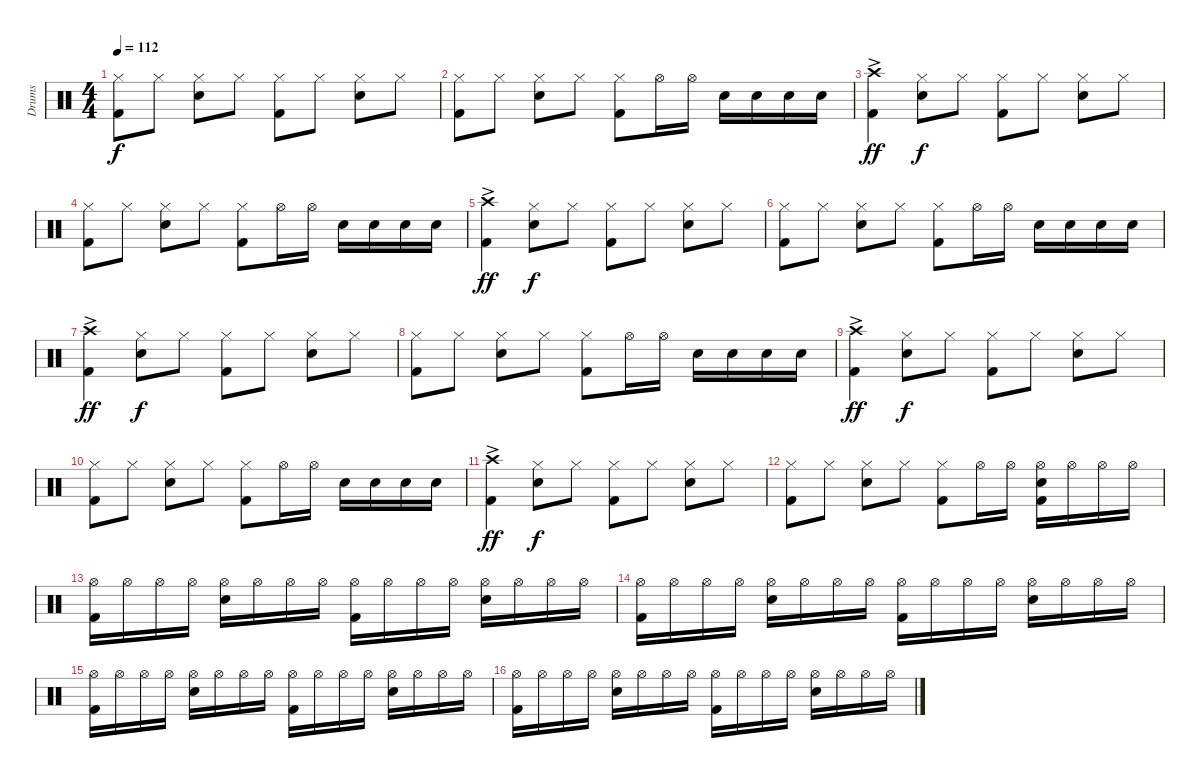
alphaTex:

\track ("Drums" "Drums") {instrument percussion}
\staff {score}
\articulation defaults
\ts (4 4)
\tempo 112
\clef neutral
\ks c
("Kick (hit) 2" "Hi-Hat (closed)").8{dy f} "Hi-Hat (closed)".8 ("Snare (hit) 2" "Hi-Hat (closed)").8 "Hi-Hat (closed)".8 ("Kick (hit) 2" "Hi-Hat (closed)").8 "Hi-Hat (closed)".8 ("Snare (hit) 2" "Hi-Hat (closed)").8 "Hi-Hat (closed)".8 |
("Kick (hit) 2" "Hi-Hat (closed)").8 "Hi-Hat (closed)".8 ("Snare (hit) 2" "Hi-Hat (closed)").8 "Hi-Hat (closed)".8 ("Kick (hit) 2" "Hi-Hat (closed)").8 "Hi-Hat (open)".16 "Hi-Hat (open)".16 "Snare (hit) 2".16 "Snare (hit) 2".16 "Snare (hit) 2".16 "Snare (hit) 2".16 |
("Kick (hit) 2" "Crash high (hit)"{ac}).4{dy ff} ("Snare (hit) 2" "Hi-Hat (closed)").8{dy f} "Hi-Hat (closed)".8 ("Kick (hit) 2" "Hi-Hat (closed)").8 "Hi-Hat (closed)".8 ("Snare (hit) 2" "Hi-Hat (closed)").8 "Hi-Hat (closed)".8 |
("Kick (hit) 2" "Hi-Hat (closed)").8 "Hi-Hat (closed)".8 ("Snare (hit) 2" "Hi-Hat (closed)").8 "Hi-Hat (closed)".8 ("Kick (hit) 2" "Hi-Hat (closed)").8 "Hi-Hat (open)".16 "Hi-Hat (open)".16 "Snare (hit) 2".16 "Snare (hit) 2".16 "Snare (hit) 2".16 "Snare (hit) 2".16 |
("Kick (hit) 2" "Crash high (hit)"{ac}).4{dy ff} ("Snare (hit) 2" "Hi-Hat (closed)").8{dy f} "Hi-Hat (closed)".8 ("Kick (hit) 2" "Hi-Hat (closed)").8 "Hi-Hat (closed)".8 ("Snare (hit) 2" "Hi-Hat (closed)").8 "Hi-Hat (closed)".8 |
("Kick (hit) 2" "Hi-Hat (closed)").8 "Hi-Hat (closed)".8 ("Snare (hit) 2" "Hi-Hat (closed)").8 "Hi-Hat (closed)".8 ("Kick (hit) 2" "Hi-Hat (closed)").8 "Hi-Hat (open)".16 "Hi-Hat (open)".16 "Snare (hit) 2".16 "Snare (hit) 2".16 "Snare (hit) 2".16 "Snare (hit) 2".16 |
("Kick (hit) 2" "Crash high (hit)"{ac}).4{dy ff} ("Snare (hit) 2" "Hi-Hat (closed)").8{dy f} "Hi-Hat (closed)".8 ("Kick (hit) 2" "Hi-Hat (closed)").8 "Hi-Hat (closed)".8 ("Snare (hit) 2" "Hi-Hat (closed)").8 "Hi-Hat (closed)".8 |
("Kick (hit) 2" "Hi-Hat (closed)").8 "Hi-Hat (closed)".8 ("Snare (hit) 2" "Hi-Hat (closed)").8 "Hi-Hat (closed)".8 ("Kick (hit) 2" "Hi-Hat (closed)").8 "Hi-Hat (open)".16 "Hi-Hat (open)".16 "Snare (hit) 2".16 "Snare (hit) 2".16 "Snare (hit) 2".16 "Snare (hit) 2".16 |
("Kick (hit) 2" "Crash high (hit)"{ac}).4{dy ff} ("Snare (hit) 2" "Hi-Hat (closed)").8{dy f} "Hi-Hat (closed)".8 ("Kick (hit) 2" "Hi-Hat (closed)").8 "Hi-Hat (closed)".8 ("Snare (hit) 2" "Hi-Hat (closed)").8 "Hi-Hat (closed)".8 |
("Kick (hit) 2" "Hi-Hat (closed)").8 "Hi-Hat (closed)".8 ("Snare (hit) 2" "Hi-Hat (closed)").8 "Hi-Hat (closed)".8 ("Kick (hit) 2" "Hi-Hat (closed)").8 "Hi-Hat (open)".16 "Hi-Hat (open)".16 "Snare (hit) 2".16 "Snare (hit) 2".16 "Snare (hit) 2".16 "Snare (hit) 2".16 |
("Kick (hit) 2" "Crash high (hit)"{ac}).4{dy ff} ("Snare (hit) 2" "Hi-Hat (closed)").8{dy f} "Hi-Hat (closed)".8 ("Kick (hit) 2" "Hi-Hat (closed)").8 "Hi-Hat (closed)".8 ("Snare (hit) 2" "Hi-Hat (closed)").8 "Hi-Hat (closed)".8 |
("Kick (hit) 2" "Hi-Hat (closed)").8 "Hi-Hat (closed)".8 ("Snare (hit) 2" "Hi-Hat (closed)").8 "Hi-Hat (closed)".8 ("Kick (hit) 2" "Hi-Hat (closed)").8 "Hi-Hat (open)".16 "Hi-Hat (open)".16 ("Kick (hit) 2" "Snare (hit) 2" "Hi-Hat (open)").16 "Hi-Hat (open)".16 "Hi-Hat (open)".16 "Hi-Hat (open)".16 |
("Kick (hit) 2" "Hi-Hat (open)").16 "Hi-Hat (open)".16 "Hi-Hat (open)".16 "Hi-Hat (open)".16 ("Snare (hit) 2" "Hi-Hat (open)").16 "Hi-Hat (open)".16 "Hi-Hat (open)".16 "Hi-Hat (open)".16 ("Kick (hit) 2" "Hi-Hat (open)").16 "Hi-Hat (open)".16 "Hi-Hat (open)".16 "Hi-Hat (open)".16 ("Snare (hit) 2" "Hi-Hat (open)").16 "Hi-Hat (open)".16 "Hi-Hat (open)".16 "Hi-Hat (open)".16 |
("Kick (hit) 2" "Hi-Hat (open)").16 "Hi-Hat (open)".16 "Hi-Hat (open)".16 "Hi-Hat (open)".16 ("Snare (hit) 2" "Hi-Hat (open)").16 "Hi-Hat (open)".16 "Hi-Hat (open)".16 "Hi-Hat (open)".16 ("Kick (hit) 2" "Hi-Hat (open)").16 "Hi-Hat (open)".16 "Hi-Hat (open)".16 "Hi-Hat (open)".16 ("Snare (hit) 2" "Hi-Hat (open)").16 "Hi-Hat (open)".16 "Hi-Hat (open)".16 "Hi-Hat (open)".16 |
("Kick (hit) 2" "Hi-Hat (open)").16 "Hi-Hat (open)".16 "Hi-Hat (open)".16 "Hi-Hat (open)".16 ("Snare (hit) 2" "Hi-Hat (open)").16 "Hi-Hat (open)".16 "Hi-Hat (open)".16 "Hi-Hat (open)".16 ("Kick (hit) 2" "Hi-Hat (open)").16 "Hi-Hat (open)".16 "Hi-Hat (open)".16 "Hi-Hat (open)".16 ("Snare (hit) 2" "Hi-Hat (open)").16 "Hi-Hat (open)".16 "Hi-Hat (open)".16 "Hi-Hat (open)".16 |
("Kick (hit) 2" "Hi-Hat (open)").16 "Hi-Hat (open)".16 "Hi-Hat (open)".16 "Hi-Hat (open)".16 ("Snare (hit) 2" "Hi-Hat (open)").16 "Hi-Hat (open)".16 "Hi-Hat (open)".16 "Hi-Hat (open)".16 ("Kick (hit) 2" "Hi-Hat (open)").16 "Hi-Hat (open)".16 "Hi-Hat (open)".16 "Hi-Hat (open)".16 ("Snare (hit) 2" "Hi-Hat (open)").16 "Hi-Hat (open)".16 "Hi-Hat (open)".16 "Hi-Hat (open)".16
